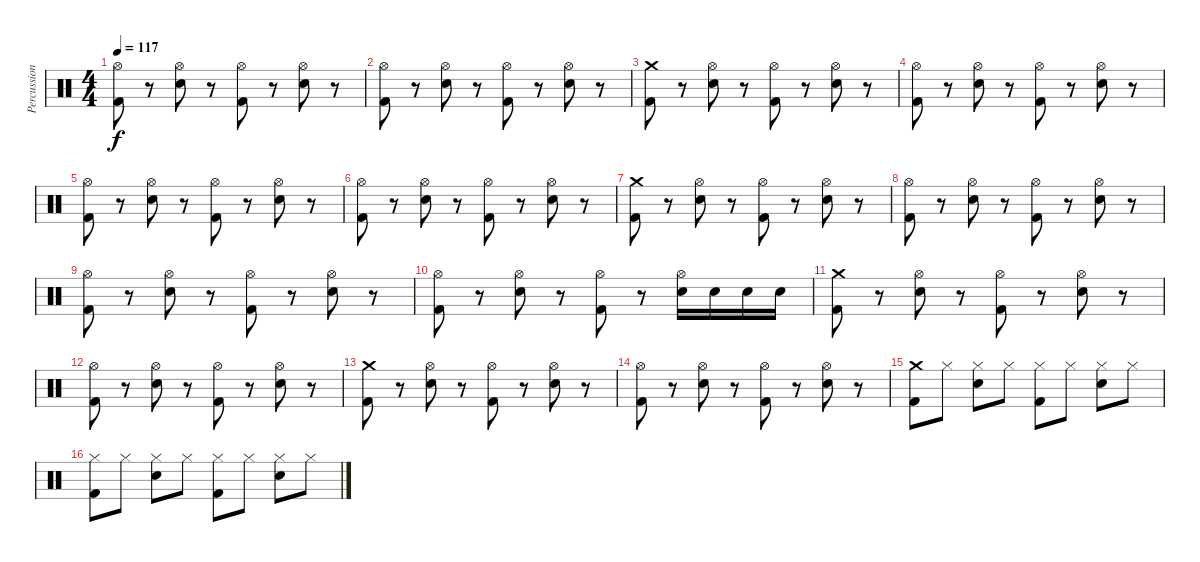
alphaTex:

\track ("Percussions" "Percussion") {instrument percussion}
\staff {score}
\articulation defaults
\ts (4 4)
\tempo 117
\clef neutral
\ks c
("Hi-Hat (open)" "Kick (hit) 2").8{dy f} r.8 ("Hi-Hat (open)" "Electric Snare (hit)").8 r.8 ("Hi-Hat (open)" "Kick (hit) 2").8 r.8 ("Hi-Hat (open)" "Electric Snare (hit)").8 r.8 |
("Hi-Hat (open)" "Kick (hit) 2").8 r.8 ("Hi-Hat (open)" "Electric Snare (hit)").8 r.8 ("Hi-Hat (open)" "Kick (hit) 2").8 r.8 ("Hi-Hat (open)" "Electric Snare (hit)").8 r.8 |
("Crash medium (hit)" "Kick (hit) 2").8 r.8 ("Hi-Hat (open)" "Electric Snare (hit)").8 r.8 ("Hi-Hat (open)" "Kick (hit) 2").8 r.8 ("Hi-Hat (open)" "Electric Snare (hit)").8 r.8 |
("Hi-Hat (open)" "Kick (hit) 2").8 r.8 ("Hi-Hat (open)" "Electric Snare (hit)").8 r.8 ("Hi-Hat (open)" "Kick (hit) 2").8 r.8 ("Hi-Hat (open)" "Electric Snare (hit)").8 r.8 |
("Hi-Hat (open)" "Kick (hit) 2").8 r.8 ("Hi-Hat (open)" "Electric Snare (hit)").8 r.8 ("Hi-Hat (open)" "Kick (hit) 2").8 r.8 ("Hi-Hat (open)" "Electric Snare (hit)").8 r.8 |
("Hi-Hat (open)" "Kick (hit) 2").8 r.8 ("Hi-Hat (open)" "Electric Snare (hit)").8 r.8 ("Hi-Hat (open)" "Kick (hit) 2").8 r.8 ("Hi-Hat (open)" "Electric Snare (hit)").8 r.8 |
("Crash medium (hit)" "Kick (hit) 2").8 r.8 ("Hi-Hat (open)" "Electric Snare (hit)").8 r.8 ("Hi-Hat (open)" "Kick (hit) 2").8 r.8 ("Hi-Hat (open)" "Electric Snare (hit)").8 r.8 |
("Hi-Hat (open)" "Kick (hit) 2").8 r.8 ("Hi-Hat (open)" "Electric Snare (hit)").8 r.8 ("Hi-Hat (open)" "Kick (hit) 2").8 r.8 ("Hi-Hat (open)" "Electric Snare (hit)").8 r.8 |
("Hi-Hat (open)" "Kick (hit) 2").8 r.8 ("Hi-Hat (open)" "Electric Snare (hit)").8 r.8 ("Hi-Hat (open)" "Kick (hit) 2").8 r.8 ("Hi-Hat (open)" "Electric Snare (hit)").8 r.8 |
("Hi-Hat (open)" "Kick (hit) 2").8 r.8 ("Hi-Hat (open)" "Electric Snare (hit)").8 r.8 ("Hi-Hat (open)" "Kick (hit) 2").8 r.8 ("Hi-Hat (open)" "Electric Snare (hit)").16 "Electric Snare (hit)".16 "Electric Snare (hit)".16 "Electric Snare (hit)".16 |
("Crash medium (hit)" "Kick (hit) 2").8 r.8 ("Hi-Hat (open)" "Electric Snare (hit)").8 r.8 ("Hi-Hat (open)" "Kick (hit) 2").8 r.8 ("Hi-Hat (open)" "Electric Snare (hit)").8 r.8 |
("Hi-Hat (open)" "Kick (hit) 2").8 r.8 ("Hi-Hat (open)" "Electric Snare (hit)").8 r.8 ("Hi-Hat (open)" "Kick (hit) 2").8 r.8 ("Hi-Hat (open)" "Electric Snare (hit)").8 r.8 |
("Crash medium (hit)" "Kick (hit) 2").8 r.8 ("Hi-Hat (open)" "Electric Snare (hit)").8 r.8 ("Hi-Hat (open)" "Kick (hit) 2").8 r.8 ("Hi-Hat (open)" "Electric Snare (hit)").8 r.8 |
("Hi-Hat (open)" "Kick (hit) 2").8 r.8 ("Hi-Hat (open)" "Electric Snare (hit)").8 r.8 ("Hi-Hat (open)" "Kick (hit) 2").8 r.8 ("Hi-Hat (open)" "Electric Snare (hit)").8 r.8 |
("Crash medium (hit)" "Kick (hit) 2").8 "Hi-Hat (closed)".8 ("Hi-Hat (closed)" "Electric Snare (hit)").8 "Hi-Hat (closed)".8 ("Hi-Hat (closed)" "Kick (hit) 2").8 "Hi-Hat (closed)".8 ("Hi-Hat (closed)" "Electric Snare (hit)").8 "Hi-Hat (closed)".8 |
("Hi-Hat (closed)" "Kick (hit) 2").8 "Hi-Hat (closed)".8 ("Hi-Hat (closed)" "Electric Snare (hit)").8 "Hi-Hat (closed)".8 ("Hi-Hat (closed)" "Kick (hit) 2").8 "Hi-Hat (closed)".8 ("Hi-Hat (closed)" "Electric Snare (hit)").8 "Hi-Hat (closed)".8
